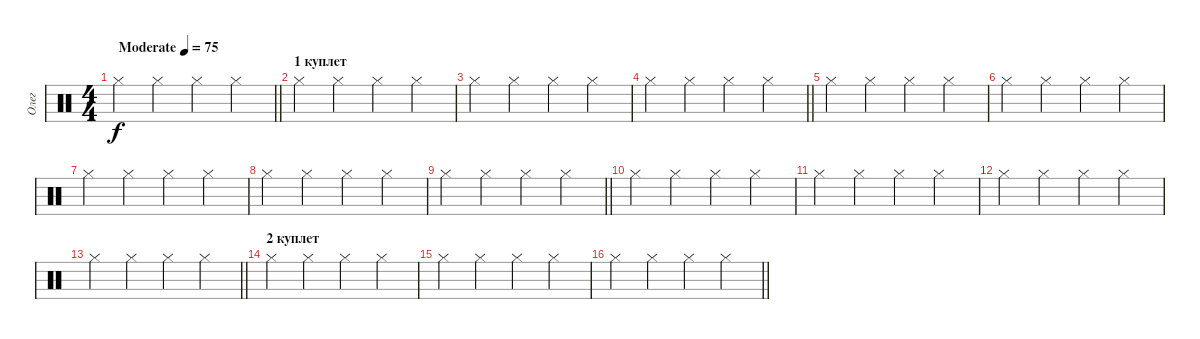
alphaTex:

\track ("Олег" "Олег") {instrument percussion}
\staff {score}
\articulation defaults
\ts (4 4)
\tempo (75 "Moderate")
\clef neutral
\barLineRight lightlight
\ks c "Hi-Hat (closed)".4{dy f} "Hi-Hat (closed)".4 "Hi-Hat (closed)".4 "Hi-Hat (closed)".4
|
\section ("" "1 куплет")
"Hi-Hat (closed)".4 "Hi-Hat (closed)".4 "Hi-Hat (closed)".4 "Hi-Hat (closed)".4 |
"Hi-Hat (closed)".4 "Hi-Hat (closed)".4 "Hi-Hat (closed)".4 "Hi-Hat (closed)".4 |
\barLineRight lightlight "Hi-Hat (closed)".4 "Hi-Hat (closed)".4 "Hi-Hat (closed)".4 "Hi-Hat (closed)".4
|
"Hi-Hat (closed)".4 "Hi-Hat (closed)".4 "Hi-Hat (closed)".4 "Hi-Hat (closed)".4 |
"Hi-Hat (closed)".4 "Hi-Hat (closed)".4 "Hi-Hat (closed)".4 "Hi-Hat (closed)".4 |
"Hi-Hat (closed)".4 "Hi-Hat (closed)".4 "Hi-Hat (closed)".4 "Hi-Hat (closed)".4 |
"Hi-Hat (closed)".4 "Hi-Hat (closed)".4 "Hi-Hat (closed)".4 "Hi-Hat (closed)".4 |
\barLineRight lightlight "Hi-Hat (closed)".4 "Hi-Hat (closed)".4 "Hi-Hat (closed)".4 "Hi-Hat (closed)".4
|
"Hi-Hat (closed)".4 "Hi-Hat (closed)".4 "Hi-Hat (closed)".4 "Hi-Hat (closed)".4 |
"Hi-Hat (closed)".4 "Hi-Hat (closed)".4 "Hi-Hat (closed)".4 "Hi-Hat (closed)".4 |
"Hi-Hat (closed)".4 "Hi-Hat (closed)".4 "Hi-Hat (closed)".4 "Hi-Hat (closed)".4 |
\barLineRight lightlight "Hi-Hat (closed)".4 "Hi-Hat (closed)".4 "Hi-Hat (closed)".4 "Hi-Hat (closed)".4
|
\section ("" "2 куплет")
"Hi-Hat (closed)".4 "Hi-Hat (closed)".4 "Hi-Hat (closed)".4 "Hi-Hat (closed)".4 |
"Hi-Hat (closed)".4 "Hi-Hat (closed)".4 "Hi-Hat (closed)".4 "Hi-Hat (closed)".4 |
\barLineRight lightlight "Hi-Hat (closed)".4 "Hi-Hat (closed)".4 "Hi-Hat (closed)".4 "Hi-Hat (closed)".4
